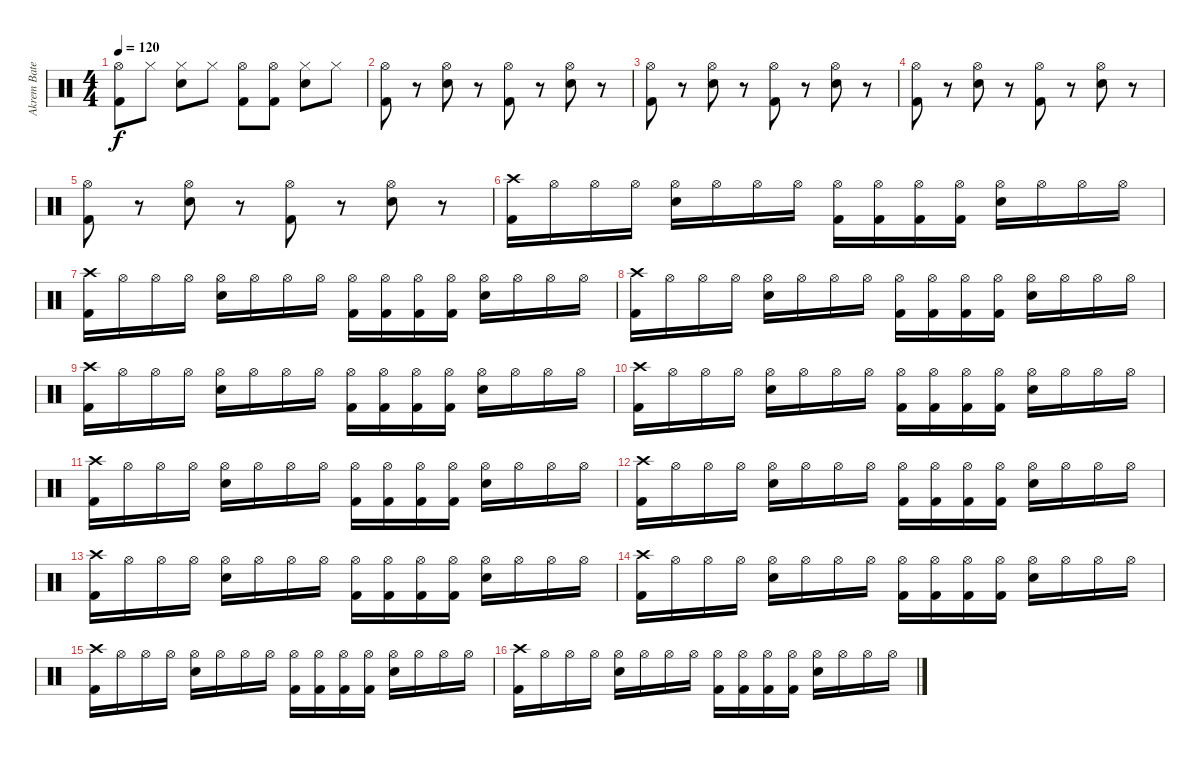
\track ("Akrem Baterie" "Akrem Bate") {instrument percussion}
\staff {score}
\articulation defaults
\ts (4 4)
\tempo 120
\clef neutral
\ks c
("Hi-Hat (open)" "Kick (hit) 2").8{dy f} "Hi-Hat (closed)".8 ("Hi-Hat (closed)" "Electric Snare (hit)").8 "Hi-Hat (closed)".8 ("Hi-Hat (open)" "Kick (hit) 2").8 ("Hi-Hat (open)" "Kick (hit) 2").8 ("Hi-Hat (closed)" "Electric Snare (hit)").8 "Hi-Hat (closed)".8 |
("Hi-Hat (open)" "Kick (hit) 2").8 r.8 ("Hi-Hat (open)" "Electric Snare (hit)").8 r.8 ("Hi-Hat (open)" "Kick (hit) 2").8 r.8 ("Hi-Hat (open)" "Electric Snare (hit)").8 r.8 |
("Hi-Hat (open)" "Kick (hit) 2").8 r.8 ("Hi-Hat (open)" "Electric Snare (hit)").8 r.8 ("Hi-Hat (open)" "Kick (hit) 2").8 r.8 ("Hi-Hat (open)" "Electric Snare (hit)").8 r.8 |
("Hi-Hat (open)" "Kick (hit) 2").8 r.8 ("Hi-Hat (open)" "Electric Snare (hit)").8 r.8 ("Hi-Hat (open)" "Kick (hit) 2").8 r.8 ("Hi-Hat (open)" "Electric Snare (hit)").8 r.8 |
("Hi-Hat (open)" "Kick (hit) 2").8 r.8 ("Hi-Hat (open)" "Electric Snare (hit)").8 r.8 ("Hi-Hat (open)" "Kick (hit) 2").8 r.8 ("Hi-Hat (open)" "Electric Snare (hit)").8 r.8 |
("Crash high (hit)" "Kick (hit) 2").16 "Hi-Hat (open)".16 "Hi-Hat (open)".16 "Hi-Hat (open)".16 ("Hi-Hat (open)" "Electric Snare (hit)").16 "Hi-Hat (open)".16 "Hi-Hat (open)".16 "Hi-Hat (open)".16 ("Hi-Hat (open)" "Kick (hit) 2").16 ("Hi-Hat (open)" "Kick (hit) 2").16 ("Hi-Hat (open)" "Kick (hit) 2").16 ("Hi-Hat (open)" "Kick (hit) 2").16 ("Hi-Hat (open)" "Electric Snare (hit)").16 "Hi-Hat (open)".16 "Hi-Hat (open)".16 "Hi-Hat (open)".16 |
("Crash high (hit)" "Kick (hit) 2").16 "Hi-Hat (open)".16 "Hi-Hat (open)".16 "Hi-Hat (open)".16 ("Hi-Hat (open)" "Electric Snare (hit)").16 "Hi-Hat (open)".16 "Hi-Hat (open)".16 "Hi-Hat (open)".16 ("Hi-Hat (open)" "Kick (hit) 2").16 ("Hi-Hat (open)" "Kick (hit) 2").16 ("Hi-Hat (open)" "Kick (hit) 2").16 ("Hi-Hat (open)" "Kick (hit) 2").16 ("Hi-Hat (open)" "Electric Snare (hit)").16 "Hi-Hat (open)".16 "Hi-Hat (open)".16 "Hi-Hat (open)".16 |
("Crash high (hit)" "Kick (hit) 2").16 "Hi-Hat (open)".16 "Hi-Hat (open)".16 "Hi-Hat (open)".16 ("Hi-Hat (open)" "Electric Snare (hit)").16 "Hi-Hat (open)".16 "Hi-Hat (open)".16 "Hi-Hat (open)".16 ("Hi-Hat (open)" "Kick (hit) 2").16 ("Hi-Hat (open)" "Kick (hit) 2").16 ("Hi-Hat (open)" "Kick (hit) 2").16 ("Hi-Hat (open)" "Kick (hit) 2").16 ("Hi-Hat (open)" "Electric Snare (hit)").16 "Hi-Hat (open)".16 "Hi-Hat (open)".16 "Hi-Hat (open)".16 |
("Crash high (hit)" "Kick (hit) 2").16 "Hi-Hat (open)".16 "Hi-Hat (open)".16 "Hi-Hat (open)".16 ("Hi-Hat (open)" "Electric Snare (hit)").16 "Hi-Hat (open)".16 "Hi-Hat (open)".16 "Hi-Hat (open)".16 ("Hi-Hat (open)" "Kick (hit) 2").16 ("Hi-Hat (open)" "Kick (hit) 2").16 ("Hi-Hat (open)" "Kick (hit) 2").16 ("Hi-Hat (open)" "Kick (hit) 2").16 ("Hi-Hat (open)" "Electric Snare (hit)").16 "Hi-Hat (open)".16 "Hi-Hat (open)".16 "Hi-Hat (open)".16 |
("Crash high (hit)" "Kick (hit) 2").16 "Hi-Hat (open)".16 "Hi-Hat (open)".16 "Hi-Hat (open)".16 ("Hi-Hat (open)" "Electric Snare (hit)").16 "Hi-Hat (open)".16 "Hi-Hat (open)".16 "Hi-Hat (open)".16 ("Hi-Hat (open)" "Kick (hit) 2").16 ("Hi-Hat (open)" "Kick (hit) 2").16 ("Hi-Hat (open)" "Kick (hit) 2").16 ("Hi-Hat (open)" "Kick (hit) 2").16 ("Hi-Hat (open)" "Electric Snare (hit)").16 "Hi-Hat (open)".16 "Hi-Hat (open)".16 "Hi-Hat (open)".16 |
("Crash high (hit)" "Kick (hit) 2").16 "Hi-Hat (open)".16 "Hi-Hat (open)".16 "Hi-Hat (open)".16 ("Hi-Hat (open)" "Electric Snare (hit)").16 "Hi-Hat (open)".16 "Hi-Hat (open)".16 "Hi-Hat (open)".16 ("Hi-Hat (open)" "Kick (hit) 2").16 ("Hi-Hat (open)" "Kick (hit) 2").16 ("Hi-Hat (open)" "Kick (hit) 2").16 ("Hi-Hat (open)" "Kick (hit) 2").16 ("Hi-Hat (open)" "Electric Snare (hit)").16 "Hi-Hat (open)".16 "Hi-Hat (open)".16 "Hi-Hat (open)".16 |
("Crash high (hit)" "Kick (hit) 2").16 "Hi-Hat (open)".16 "Hi-Hat (open)".16 "Hi-Hat (open)".16 ("Hi-Hat (open)" "Electric Snare (hit)").16 "Hi-Hat (open)".16 "Hi-Hat (open)".16 "Hi-Hat (open)".16 ("Hi-Hat (open)" "Kick (hit) 2").16 ("Hi-Hat (open)" "Kick (hit) 2").16 ("Hi-Hat (open)" "Kick (hit) 2").16 ("Hi-Hat (open)" "Kick (hit) 2").16 ("Hi-Hat (open)" "Electric Snare (hit)").16 "Hi-Hat (open)".16 "Hi-Hat (open)".16 "Hi-Hat (open)".16 |
("Crash high (hit)" "Kick (hit) 2").16 "Hi-Hat (open)".16 "Hi-Hat (open)".16 "Hi-Hat (open)".16 ("Hi-Hat (open)" "Electric Snare (hit)").16 "Hi-Hat (open)".16 "Hi-Hat (open)".16 "Hi-Hat (open)".16 ("Hi-Hat (open)" "Kick (hit) 2").16 ("Hi-Hat (open)" "Kick (hit) 2").16 ("Hi-Hat (open)" "Kick (hit) 2").16 ("Hi-Hat (open)" "Kick (hit) 2").16 ("Hi-Hat (open)" "Electric Snare (hit)").16 "Hi-Hat (open)".16 "Hi-Hat (open)".16 "Hi-Hat (open)".16 |
("Crash high (hit)" "Kick (hit) 2").16 "Hi-Hat (open)".16 "Hi-Hat (open)".16 "Hi-Hat (open)".16 ("Hi-Hat (open)" "Electric Snare (hit)").16 "Hi-Hat (open)".16 "Hi-Hat (open)".16 "Hi-Hat (open)".16 ("Hi-Hat (open)" "Kick (hit) 2").16 ("Hi-Hat (open)" "Kick (hit) 2").16 ("Hi-Hat (open)" "Kick (hit) 2").16 ("Hi-Hat (open)" "Kick (hit) 2").16 ("Hi-Hat (open)" "Electric Snare (hit)").16 "Hi-Hat (open)".16 "Hi-Hat (open)".16 "Hi-Hat (open)".16 |
("Crash high (hit)" "Kick (hit) 2").16 "Hi-Hat (open)".16 "Hi-Hat (open)".16 "Hi-Hat (open)".16 ("Hi-Hat (open)" "Electric Snare (hit)").16 "Hi-Hat (open)".16 "Hi-Hat (open)".16 "Hi-Hat (open)".16 ("Hi-Hat (open)" "Kick (hit) 2").16 ("Hi-Hat (open)" "Kick (hit) 2").16 ("Hi-Hat (open)" "Kick (hit) 2").16 ("Hi-Hat (open)" "Kick (hit) 2").16 ("Hi-Hat (open)" "Electric Snare (hit)").16 "Hi-Hat (open)".16 "Hi-Hat (open)".16 "Hi-Hat (open)".16 |
("Crash high (hit)" "Kick (hit) 2").16 "Hi-Hat (open)".16 "Hi-Hat (open)".16 "Hi-Hat (open)".16 ("Hi-Hat (open)" "Electric Snare (hit)").16 "Hi-Hat (open)".16 "Hi-Hat (open)".16 "Hi-Hat (open)".16 ("Hi-Hat (open)" "Kick (hit) 2").16 ("Hi-Hat (open)" "Kick (hit) 2").16 ("Hi-Hat (open)" "Kick (hit) 2").16 ("Hi-Hat (open)" "Kick (hit) 2").16 ("Hi-Hat (open)" "Electric Snare (hit)").16 "Hi-Hat (open)".16 "Hi-Hat (open)".16 "Hi-Hat (open)".16
